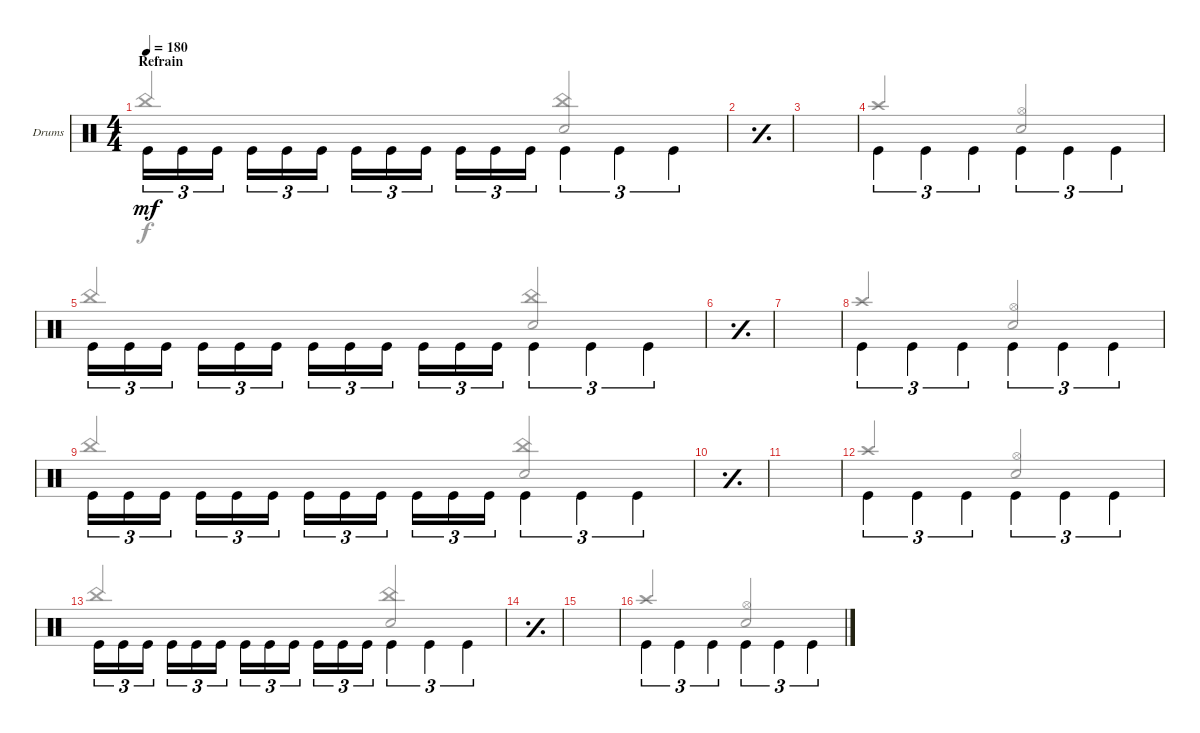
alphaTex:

\defaultSystemsLayout 4
\bracketExtendMode groupsimilarinstruments
\multiBarRest
\firstSystemTrackNameOrientation horizontal
\otherSystemsTrackNameOrientation horizontal
\track ("Drumkit" "Drums") {instrument percussion}
\staff {score}
\articulation defaults
\voice
\ts (4 4)
\section ("" "Refrain")
\tempo 180
\clef neutral
\ks c "Kick (hit)".16{tu (3 2) dy mf beam invert} "Kick (hit)".16{tu (3 2) beam invert} "Kick (hit)".16{tu (3 2) beam invert} "Kick (hit)".16{tu (3 2) beam invert} "Kick (hit)".16{tu (3 2) beam invert} "Kick (hit)".16{tu (3 2) beam invert} "Kick (hit)".16{tu (3 2) beam invert} "Kick (hit)".16{tu (3 2) beam invert} "Kick (hit)".16{tu (3 2) beam invert} "Kick (hit)".16{tu (3 2) beam invert} "Kick (hit)".16{tu (3 2) beam invert} "Kick (hit)".16{tu (3 2) beam invert} "Kick (hit)".4{tu (3 2) beam invert} "Kick (hit)".4{tu (3 2) beam invert} "Kick (hit)".4{tu (3 2) beam invert}
|
\simile simple
|
|
\simile none "Kick (hit)".4{tu (3 2) beam invert} "Kick (hit)".4{tu (3 2) beam invert} "Kick (hit)".4{tu (3 2) beam invert} "Kick (hit)".4{tu (3 2) beam invert} "Kick (hit)".4{tu (3 2) beam invert} "Kick (hit)".4{tu (3 2) beam invert}
|
"Kick (hit)".16{tu (3 2) beam invert} "Kick (hit)".16{tu (3 2) beam invert} "Kick (hit)".16{tu (3 2) beam invert} "Kick (hit)".16{tu (3 2) beam invert} "Kick (hit)".16{tu (3 2) beam invert} "Kick (hit)".16{tu (3 2) beam invert} "Kick (hit)".16{tu (3 2) beam invert} "Kick (hit)".16{tu (3 2) beam invert} "Kick (hit)".16{tu (3 2) beam invert} "Kick (hit)".16{tu (3 2) beam invert} "Kick (hit)".16{tu (3 2) beam invert} "Kick (hit)".16{tu (3 2) beam invert} "Kick (hit)".4{tu (3 2) beam invert} "Kick (hit)".4{tu (3 2) beam invert} "Kick (hit)".4{tu (3 2) beam invert} |
\simile simple
|
|
\simile none "Kick (hit)".4{tu (3 2) beam invert} "Kick (hit)".4{tu (3 2) beam invert} "Kick (hit)".4{tu (3 2) beam invert} "Kick (hit)".4{tu (3 2) beam invert} "Kick (hit)".4{tu (3 2) beam invert} "Kick (hit)".4{tu (3 2) beam invert}
|
"Kick (hit)".16{tu (3 2) beam invert} "Kick (hit)".16{tu (3 2) beam invert} "Kick (hit)".16{tu (3 2) beam invert} "Kick (hit)".16{tu (3 2) beam invert} "Kick (hit)".16{tu (3 2) beam invert} "Kick (hit)".16{tu (3 2) beam invert} "Kick (hit)".16{tu (3 2) beam invert} "Kick (hit)".16{tu (3 2) beam invert} "Kick (hit)".16{tu (3 2) beam invert} "Kick (hit)".16{tu (3 2) beam invert} "Kick (hit)".16{tu (3 2) beam invert} "Kick (hit)".16{tu (3 2) beam invert} "Kick (hit)".4{tu (3 2) beam invert} "Kick (hit)".4{tu (3 2) beam invert} "Kick (hit)".4{tu (3 2) beam invert} |
\simile simple
|
|
\simile none "Kick (hit)".4{tu (3 2) beam invert} "Kick (hit)".4{tu (3 2) beam invert} "Kick (hit)".4{tu (3 2) beam invert} "Kick (hit)".4{tu (3 2) beam invert} "Kick (hit)".4{tu (3 2) beam invert} "Kick (hit)".4{tu (3 2) beam invert}
|
"Kick (hit)".16{tu (3 2) beam invert} "Kick (hit)".16{tu (3 2) beam invert} "Kick (hit)".16{tu (3 2) beam invert} "Kick (hit)".16{tu (3 2) beam invert} "Kick (hit)".16{tu (3 2) beam invert} "Kick (hit)".16{tu (3 2) beam invert} "Kick (hit)".16{tu (3 2) beam invert} "Kick (hit)".16{tu (3 2) beam invert} "Kick (hit)".16{tu (3 2) beam invert} "Kick (hit)".16{tu (3 2) beam invert} "Kick (hit)".16{tu (3 2) beam invert} "Kick (hit)".16{tu (3 2) beam invert} "Kick (hit)".4{tu (3 2) beam invert} "Kick (hit)".4{tu (3 2) beam invert} "Kick (hit)".4{tu (3 2) beam invert} |
\simile simple
|
|
\simile none "Kick (hit)".4{tu (3 2) beam invert} "Kick (hit)".4{tu (3 2) beam invert} "Kick (hit)".4{tu (3 2) beam invert} "Kick (hit)".4{tu (3 2) beam invert} "Kick (hit)".4{tu (3 2) beam invert} "Kick (hit)".4{tu (3 2) beam invert}
\voice
\clef neutral
\ottava regular
\simile none
\ks c "China (hit)".2{dy f beam invert}
("Snare (hit) 2" "China (hit)").2{beam invert} |
\simile simple
|
|
\simile none "Crash high (hit)".2{beam invert}
("Hi-Hat (open)" "Snare (hit) 2").2{beam invert} |
"China (hit)".2{beam invert} ("Snare (hit) 2" "China (hit)").2{beam invert} |
\simile simple
|
|
\simile none "Crash high (hit)".2{beam invert}
("Hi-Hat (open)" "Snare (hit) 2").2{beam invert} |
"China (hit)".2{beam invert} ("Snare (hit) 2" "China (hit)").2{beam invert} |
\simile simple
|
|
\simile none "Crash high (hit)".2{beam invert}
("Hi-Hat (open)" "Snare (hit) 2").2{beam invert} |
"China (hit)".2{beam invert} ("Snare (hit) 2" "China (hit)").2{beam invert} |
\simile simple
|
|
\simile none "Crash high (hit)".2{beam invert}
("Hi-Hat (open)" "Snare (hit) 2").2{beam invert}
